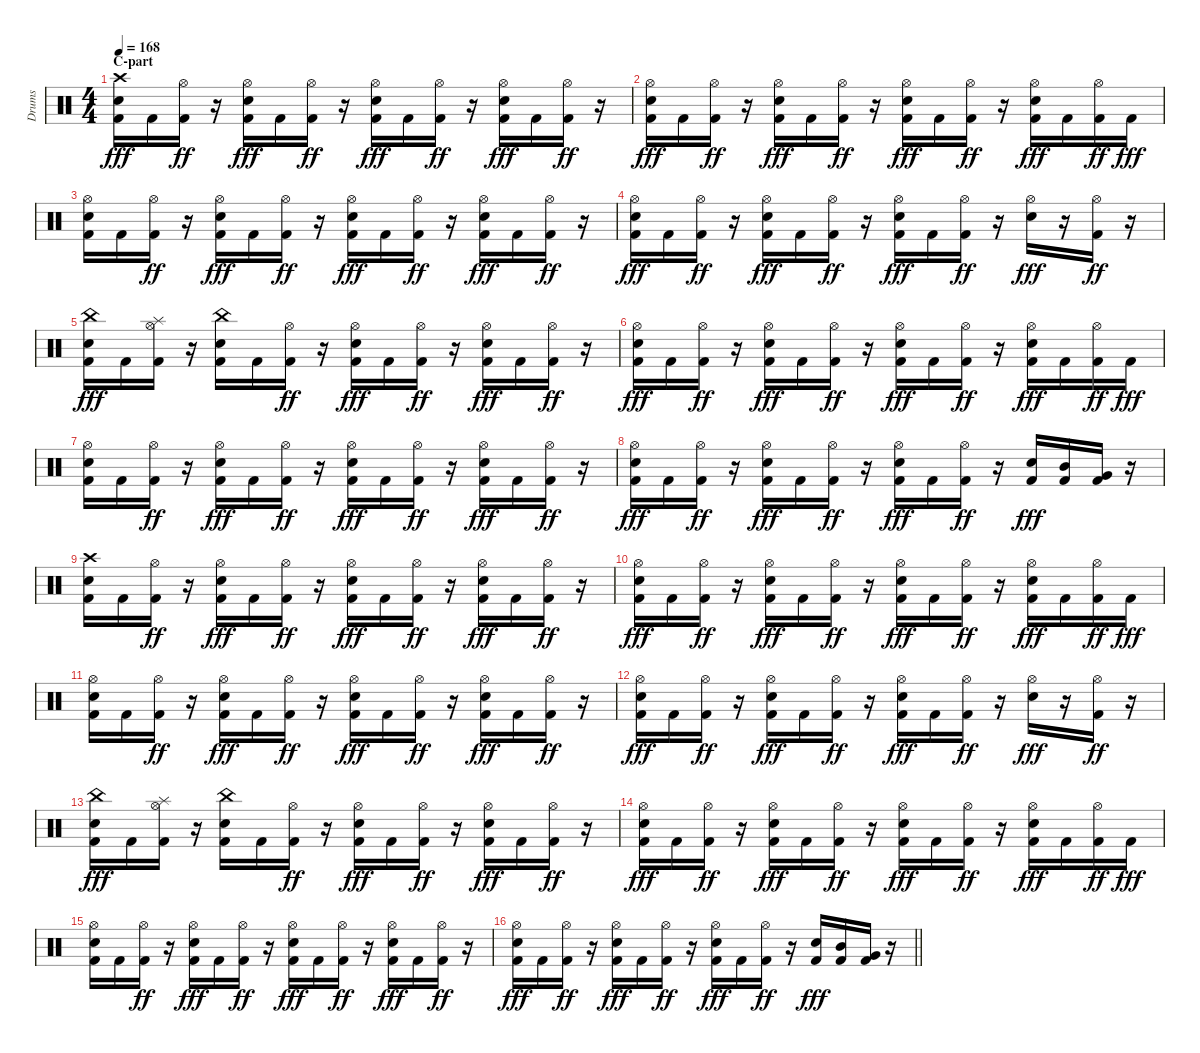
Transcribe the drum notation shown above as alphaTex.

\track ("Drums" "Drums") {instrument percussion}
\staff {score}
\articulation defaults
\ts (4 4)
\section ("" "C-part")
\tempo 168
\clef neutral
\ks c
("Kick (hit) 2" "Snare (hit) 2" "Crash high (hit)").16{dy fff} "Kick (hit) 2".16 ("Kick (hit) 2" "Hi-Hat (open)").16{dy ff} r.16 ("Kick (hit) 2" "Snare (hit) 2" "Hi-Hat (open)").16{dy fff} "Kick (hit) 2".16 ("Kick (hit) 2" "Hi-Hat (open)").16{dy ff} r.16 ("Kick (hit) 2" "Snare (hit) 2" "Hi-Hat (open)").16{dy fff} "Kick (hit) 2".16 ("Kick (hit) 2" "Hi-Hat (open)").16{dy ff} r.16 ("Kick (hit) 2" "Snare (hit) 2" "Hi-Hat (open)").16{dy fff} "Kick (hit) 2".16 ("Kick (hit) 2" "Hi-Hat (open)").16{dy ff} r.16 |
("Kick (hit) 2" "Snare (hit) 2" "Hi-Hat (open)").16{dy fff} "Kick (hit) 2".16 ("Kick (hit) 2" "Hi-Hat (open)").16{dy ff} r.16 ("Kick (hit) 2" "Snare (hit) 2" "Hi-Hat (open)").16{dy fff} "Kick (hit) 2".16 ("Kick (hit) 2" "Hi-Hat (open)").16{dy ff} r.16 ("Kick (hit) 2" "Snare (hit) 2" "Hi-Hat (open)").16{dy fff} "Kick (hit) 2".16 ("Kick (hit) 2" "Hi-Hat (open)").16{dy ff} r.16 ("Kick (hit) 2" "Snare (hit) 2" "Hi-Hat (open)").16{dy fff} "Kick (hit) 2".16 ("Kick (hit) 2" "Hi-Hat (open)").16{dy ff} "Kick (hit) 2".16{dy fff} |
("Kick (hit) 2" "Snare (hit) 2" "Hi-Hat (open)").16 "Kick (hit) 2".16 ("Kick (hit) 2" "Hi-Hat (open)").16{dy ff} r.16 ("Kick (hit) 2" "Snare (hit) 2" "Hi-Hat (open)").16{dy fff} "Kick (hit) 2".16 ("Kick (hit) 2" "Hi-Hat (open)").16{dy ff} r.16 ("Kick (hit) 2" "Snare (hit) 2" "Hi-Hat (open)").16{dy fff} "Kick (hit) 2".16 ("Kick (hit) 2" "Hi-Hat (open)").16{dy ff} r.16 ("Kick (hit) 2" "Snare (hit) 2" "Hi-Hat (open)").16{dy fff} "Kick (hit) 2".16 ("Kick (hit) 2" "Hi-Hat (open)").16{dy ff} r.16 |
("Kick (hit) 2" "Snare (hit) 2" "Hi-Hat (open)").16{dy fff} "Kick (hit) 2".16 ("Kick (hit) 2" "Hi-Hat (open)").16{dy ff} r.16 ("Kick (hit) 2" "Snare (hit) 2" "Hi-Hat (open)").16{dy fff} "Kick (hit) 2".16 ("Kick (hit) 2" "Hi-Hat (open)").16{dy ff} r.16 ("Kick (hit) 2" "Snare (hit) 2" "Hi-Hat (open)").16{dy fff} "Kick (hit) 2".16 ("Kick (hit) 2" "Hi-Hat (open)").16{dy ff} r.16 ("Snare (hit) 2" "Hi-Hat (open)").16{dy fff} r.16 ("Kick (hit) 2" "Hi-Hat (open)").16{dy ff} r.16 |
("Kick (hit) 2" "Snare (hit) 2" "China (hit)").16{dy fff} "Kick (hit) 2".16 ("Kick (hit) 2" "Hi-Hat (open)" "Splash (hit)").16 r.16 ("Kick (hit) 2" "Snare (hit) 2" "China (hit)").16 "Kick (hit) 2".16 ("Kick (hit) 2" "Hi-Hat (open)").16{dy ff} r.16 ("Kick (hit) 2" "Snare (hit) 2" "Hi-Hat (open)").16{dy fff} "Kick (hit) 2".16 ("Kick (hit) 2" "Hi-Hat (open)").16{dy ff} r.16 ("Kick (hit) 2" "Snare (hit) 2" "Hi-Hat (open)").16{dy fff} "Kick (hit) 2".16 ("Kick (hit) 2" "Hi-Hat (open)").16{dy ff} r.16 |
("Kick (hit) 2" "Snare (hit) 2" "Hi-Hat (open)").16{dy fff} "Kick (hit) 2".16 ("Kick (hit) 2" "Hi-Hat (open)").16{dy ff} r.16 ("Kick (hit) 2" "Snare (hit) 2" "Hi-Hat (open)").16{dy fff} "Kick (hit) 2".16 ("Kick (hit) 2" "Hi-Hat (open)").16{dy ff} r.16 ("Kick (hit) 2" "Snare (hit) 2" "Hi-Hat (open)").16{dy fff} "Kick (hit) 2".16 ("Kick (hit) 2" "Hi-Hat (open)").16{dy ff} r.16 ("Kick (hit) 2" "Snare (hit) 2" "Hi-Hat (open)").16{dy fff} "Kick (hit) 2".16 ("Kick (hit) 2" "Hi-Hat (open)").16{dy ff} "Kick (hit) 2".16{dy fff} |
("Kick (hit) 2" "Snare (hit) 2" "Hi-Hat (open)").16 "Kick (hit) 2".16 ("Kick (hit) 2" "Hi-Hat (open)").16{dy ff} r.16 ("Kick (hit) 2" "Snare (hit) 2" "Hi-Hat (open)").16{dy fff} "Kick (hit) 2".16 ("Kick (hit) 2" "Hi-Hat (open)").16{dy ff} r.16 ("Kick (hit) 2" "Snare (hit) 2" "Hi-Hat (open)").16{dy fff} "Kick (hit) 2".16 ("Kick (hit) 2" "Hi-Hat (open)").16{dy ff} r.16 ("Kick (hit) 2" "Snare (hit) 2" "Hi-Hat (open)").16{dy fff} "Kick (hit) 2".16 ("Kick (hit) 2" "Hi-Hat (open)").16{dy ff} r.16 |
("Kick (hit) 2" "Snare (hit) 2" "Hi-Hat (open)").16{dy fff} "Kick (hit) 2".16 ("Kick (hit) 2" "Hi-Hat (open)").16{dy ff} r.16 ("Kick (hit) 2" "Snare (hit) 2" "Hi-Hat (open)").16{dy fff} "Kick (hit) 2".16 ("Kick (hit) 2" "Hi-Hat (open)").16{dy ff} r.16 ("Kick (hit) 2" "Snare (hit) 2" "Hi-Hat (open)").16{dy fff} "Kick (hit) 2".16 ("Kick (hit) 2" "Hi-Hat (open)").16{dy ff} r.16 ("Kick (hit) 2" "Snare (hit) 2").16{dy fff} ("Kick (hit) 2" "Mid Tom (hit)").16 ("Kick (hit) 2" "Very Low Tom (hit)").16 r.16 |
("Kick (hit) 2" "Snare (hit) 2" "Crash high (hit)").16 "Kick (hit) 2".16 ("Kick (hit) 2" "Hi-Hat (open)").16{dy ff} r.16 ("Kick (hit) 2" "Snare (hit) 2" "Hi-Hat (open)").16{dy fff} "Kick (hit) 2".16 ("Kick (hit) 2" "Hi-Hat (open)").16{dy ff} r.16 ("Kick (hit) 2" "Snare (hit) 2" "Hi-Hat (open)").16{dy fff} "Kick (hit) 2".16 ("Kick (hit) 2" "Hi-Hat (open)").16{dy ff} r.16 ("Kick (hit) 2" "Snare (hit) 2" "Hi-Hat (open)").16{dy fff} "Kick (hit) 2".16 ("Kick (hit) 2" "Hi-Hat (open)").16{dy ff} r.16 |
("Kick (hit) 2" "Snare (hit) 2" "Hi-Hat (open)").16{dy fff} "Kick (hit) 2".16 ("Kick (hit) 2" "Hi-Hat (open)").16{dy ff} r.16 ("Kick (hit) 2" "Snare (hit) 2" "Hi-Hat (open)").16{dy fff} "Kick (hit) 2".16 ("Kick (hit) 2" "Hi-Hat (open)").16{dy ff} r.16 ("Kick (hit) 2" "Snare (hit) 2" "Hi-Hat (open)").16{dy fff} "Kick (hit) 2".16 ("Kick (hit) 2" "Hi-Hat (open)").16{dy ff} r.16 ("Kick (hit) 2" "Snare (hit) 2" "Hi-Hat (open)").16{dy fff} "Kick (hit) 2".16 ("Kick (hit) 2" "Hi-Hat (open)").16{dy ff} "Kick (hit) 2".16{dy fff} |
("Kick (hit) 2" "Snare (hit) 2" "Hi-Hat (open)").16 "Kick (hit) 2".16 ("Kick (hit) 2" "Hi-Hat (open)").16{dy ff} r.16 ("Kick (hit) 2" "Snare (hit) 2" "Hi-Hat (open)").16{dy fff} "Kick (hit) 2".16 ("Kick (hit) 2" "Hi-Hat (open)").16{dy ff} r.16 ("Kick (hit) 2" "Snare (hit) 2" "Hi-Hat (open)").16{dy fff} "Kick (hit) 2".16 ("Kick (hit) 2" "Hi-Hat (open)").16{dy ff} r.16 ("Kick (hit) 2" "Snare (hit) 2" "Hi-Hat (open)").16{dy fff} "Kick (hit) 2".16 ("Kick (hit) 2" "Hi-Hat (open)").16{dy ff} r.16 |
("Kick (hit) 2" "Snare (hit) 2" "Hi-Hat (open)").16{dy fff} "Kick (hit) 2".16 ("Kick (hit) 2" "Hi-Hat (open)").16{dy ff} r.16 ("Kick (hit) 2" "Snare (hit) 2" "Hi-Hat (open)").16{dy fff} "Kick (hit) 2".16 ("Kick (hit) 2" "Hi-Hat (open)").16{dy ff} r.16 ("Kick (hit) 2" "Snare (hit) 2" "Hi-Hat (open)").16{dy fff} "Kick (hit) 2".16 ("Kick (hit) 2" "Hi-Hat (open)").16{dy ff} r.16 ("Snare (hit) 2" "Hi-Hat (open)").16{dy fff} r.16 ("Kick (hit) 2" "Hi-Hat (open)").16{dy ff} r.16 |
("Kick (hit) 2" "Snare (hit) 2" "China (hit)").16{dy fff} "Kick (hit) 2".16 ("Kick (hit) 2" "Hi-Hat (open)" "Splash (hit)").16 r.16 ("Kick (hit) 2" "Snare (hit) 2" "China (hit)").16 "Kick (hit) 2".16 ("Kick (hit) 2" "Hi-Hat (open)").16{dy ff} r.16 ("Kick (hit) 2" "Snare (hit) 2" "Hi-Hat (open)").16{dy fff} "Kick (hit) 2".16 ("Kick (hit) 2" "Hi-Hat (open)").16{dy ff} r.16 ("Kick (hit) 2" "Snare (hit) 2" "Hi-Hat (open)").16{dy fff} "Kick (hit) 2".16 ("Kick (hit) 2" "Hi-Hat (open)").16{dy ff} r.16 |
("Kick (hit) 2" "Snare (hit) 2" "Hi-Hat (open)").16{dy fff} "Kick (hit) 2".16 ("Kick (hit) 2" "Hi-Hat (open)").16{dy ff} r.16 ("Kick (hit) 2" "Snare (hit) 2" "Hi-Hat (open)").16{dy fff} "Kick (hit) 2".16 ("Kick (hit) 2" "Hi-Hat (open)").16{dy ff} r.16 ("Kick (hit) 2" "Snare (hit) 2" "Hi-Hat (open)").16{dy fff} "Kick (hit) 2".16 ("Kick (hit) 2" "Hi-Hat (open)").16{dy ff} r.16 ("Kick (hit) 2" "Snare (hit) 2" "Hi-Hat (open)").16{dy fff} "Kick (hit) 2".16 ("Kick (hit) 2" "Hi-Hat (open)").16{dy ff} "Kick (hit) 2".16{dy fff} |
("Kick (hit) 2" "Snare (hit) 2" "Hi-Hat (open)").16 "Kick (hit) 2".16 ("Kick (hit) 2" "Hi-Hat (open)").16{dy ff} r.16 ("Kick (hit) 2" "Snare (hit) 2" "Hi-Hat (open)").16{dy fff} "Kick (hit) 2".16 ("Kick (hit) 2" "Hi-Hat (open)").16{dy ff} r.16 ("Kick (hit) 2" "Snare (hit) 2" "Hi-Hat (open)").16{dy fff} "Kick (hit) 2".16 ("Kick (hit) 2" "Hi-Hat (open)").16{dy ff} r.16 ("Kick (hit) 2" "Snare (hit) 2" "Hi-Hat (open)").16{dy fff} "Kick (hit) 2".16 ("Kick (hit) 2" "Hi-Hat (open)").16{dy ff} r.16 |
\barLineRight lightlight
("Kick (hit) 2" "Snare (hit) 2" "Hi-Hat (open)").16{dy fff} "Kick (hit) 2".16 ("Kick (hit) 2" "Hi-Hat (open)").16{dy ff} r.16 ("Kick (hit) 2" "Snare (hit) 2" "Hi-Hat (open)").16{dy fff} "Kick (hit) 2".16 ("Kick (hit) 2" "Hi-Hat (open)").16{dy ff} r.16 ("Kick (hit) 2" "Snare (hit) 2" "Hi-Hat (open)").16{dy fff} "Kick (hit) 2".16 ("Kick (hit) 2" "Hi-Hat (open)").16{dy ff} r.16 ("Kick (hit) 2" "Snare (hit) 2").16{dy fff} ("Kick (hit) 2" "Mid Tom (hit)").16 ("Kick (hit) 2" "Very Low Tom (hit)").16 r.16
